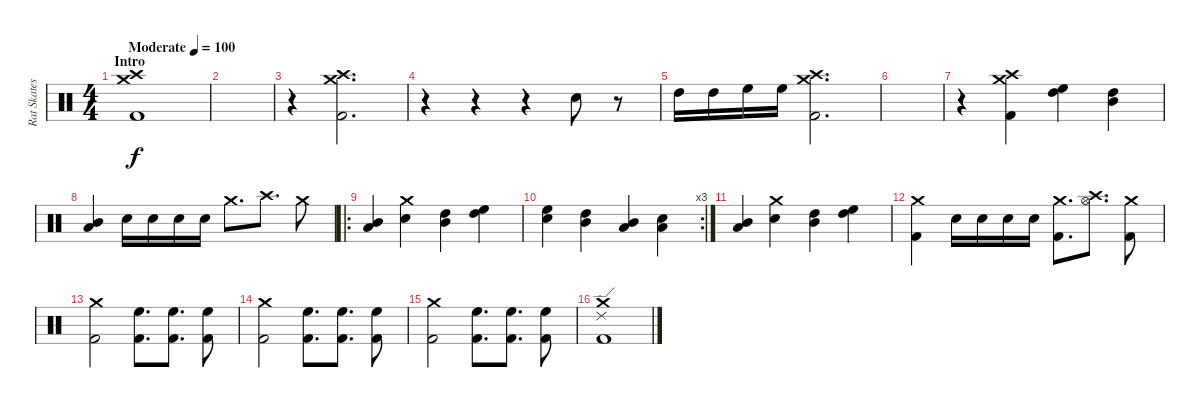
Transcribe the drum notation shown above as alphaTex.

\track ("Rat Skates" "Rat Skates") {instrument percussion}
\staff {score}
\articulation defaults
\ts (4 4)
\section ("" "Intro")
\tempo (100 "Moderate")
\clef neutral
\ks c
("Crash medium (hit)" "Crash high (hit)" "Kick (hit) 2").1{dy f} |
|
r.4 ("Crash medium (hit)" "Crash high (hit)" "Kick (hit) 2").2{d} |
r.4 r.4 r.4 "Snare (hit) 2".8 r.8 |
"High Tom (hit)".16 "High Tom (hit)".16 "High Floor Tom (hit)".16 "High Floor Tom (hit)".16 ("Crash medium (hit)" "Crash high (hit)" "Kick (hit) 2").2{d} |
|
r.4 ("Crash medium (hit)" "Crash high (hit)" "Kick (hit) 2").4 ("High Tom (hit)" "High Floor Tom (hit)").4 ("Mid Tom (hit)" "High Tom (hit)").4 |
("Low Tom (hit)" "Mid Tom (hit)").4 "Snare (hit) 2".16 "Snare (hit) 2".16 "Snare (hit) 2".16 "Snare (hit) 2".16 "Crash medium (hit)".8{d} "Crash high (hit)".8{d} "Crash medium (hit)".8 |
\ro
("Mid Tom (hit)" "Low Tom (hit)").4 ("Crash medium (hit)" "Snare (hit) 2").4 ("High Tom (hit)" "Mid Tom (hit)").4 ("High Floor Tom (hit)" "High Tom (hit)").4 |
\rc 3
("High Floor Tom (hit)" "Snare (hit) 2").4 ("High Tom (hit)" "Mid Tom (hit)").4 ("Mid Tom (hit)" "Low Tom (hit)").4 ("Low Tom (hit)" "Snare (hit) 2").4 |
("Mid Tom (hit)" "Low Tom (hit)").4 ("Crash medium (hit)" "Snare (hit) 2").4 ("High Tom (hit)" "Mid Tom (hit)").4 ("High Floor Tom (hit)" "High Tom (hit)").4 |
("Crash medium (hit)" "Kick (hit) 2").4 "Snare (hit) 2".16 "Snare (hit) 2".16 "Snare (hit) 2".16 "Snare (hit) 2".16 ("Crash medium (hit)" "Kick (hit) 2").8{d} ("Crash high (hit)" "Hi-Hat (open)").8{d} ("Crash medium (hit)" "Kick (hit) 2").8 |
("Crash medium (hit)" "Kick (hit) 2").2 ("High Floor Tom (hit)" "Kick (hit) 2").8{d} ("High Floor Tom (hit)" "Kick (hit) 2").8{d} ("High Floor Tom (hit)" "Kick (hit) 2").8 |
("Crash medium (hit)" "Kick (hit) 2").2 ("High Floor Tom (hit)" "Kick (hit) 2").8{d} ("High Floor Tom (hit)" "Kick (hit) 2").8{d} ("High Floor Tom (hit)" "Kick (hit) 2").8 |
("Crash medium (hit)" "Kick (hit) 2").2 ("High Floor Tom (hit)" "Kick (hit) 2").8{d} ("High Floor Tom (hit)" "Kick (hit) 2").8{d} ("High Floor Tom (hit)" "Kick (hit) 2").8 |
("Crash medium (hit)" "Ride (edge) 2" "Kick (hit) 2").1
